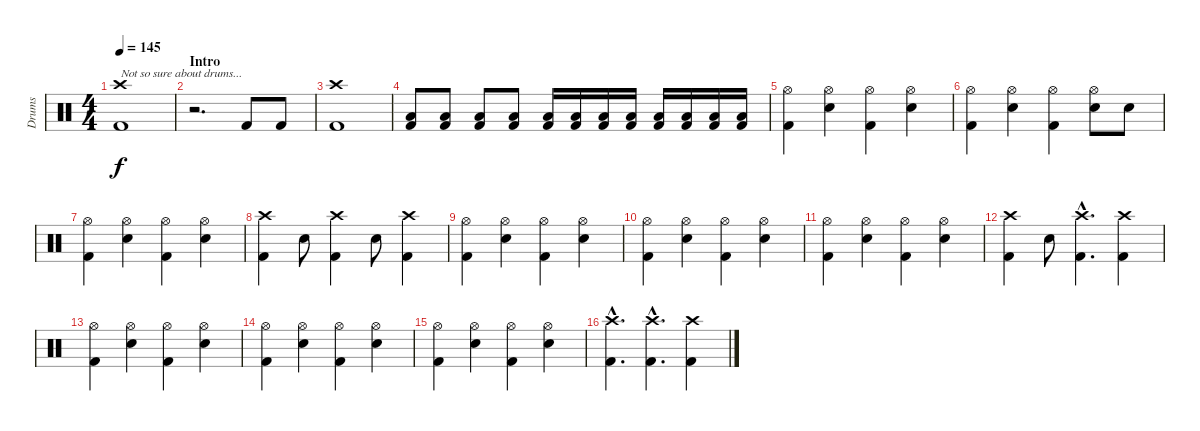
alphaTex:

\track ("Drums" "Drums") {instrument percussion}
\staff {score}
\articulation defaults
\ts (4 4)
\tempo 145
\clef neutral
\ks c
("Crash high (hit)" "Kick (hit) 2").1{txt "Not so sure about drums..." dy f} |
\section ("" "Intro")
r.2{d} "Kick (hit) 2".8 "Kick (hit) 2".8 |
("Crash high (hit)" "Kick (hit) 2").1 |
("Kick (hit) 2" "Low Tom (hit)").8 ("Kick (hit) 2" "Low Tom (hit)").8 ("Kick (hit) 2" "Low Tom (hit)").8 ("Kick (hit) 2" "Low Tom (hit)").8 ("Kick (hit) 2" "Low Tom (hit)").16 ("Kick (hit) 2" "Low Tom (hit)").16 ("Kick (hit) 2" "Low Tom (hit)").16 ("Kick (hit) 2" "Low Tom (hit)").16 ("Kick (hit) 2" "Low Tom (hit)").16 ("Kick (hit) 2" "Low Tom (hit)").16 ("Kick (hit) 2" "Low Tom (hit)").16 ("Kick (hit) 2" "Low Tom (hit)").16 |
("Hi-Hat (open)" "Kick (hit) 2").4 ("Hi-Hat (open)" "Electric Snare (hit)").4 ("Hi-Hat (open)" "Kick (hit) 2").4 ("Hi-Hat (open)" "Electric Snare (hit)").4 |
("Hi-Hat (open)" "Kick (hit) 2").4 ("Hi-Hat (open)" "Electric Snare (hit)").4 ("Hi-Hat (open)" "Kick (hit) 2").4 ("Hi-Hat (open)" "Electric Snare (hit)").8 "Electric Snare (hit)".8 |
("Hi-Hat (open)" "Kick (hit) 2").4 ("Hi-Hat (open)" "Electric Snare (hit)").4 ("Hi-Hat (open)" "Kick (hit) 2").4 ("Hi-Hat (open)" "Electric Snare (hit)").4 |
("Crash high (hit)" "Kick (hit) 2").4 "Electric Snare (hit)".8 ("Crash high (hit)" "Kick (hit) 2").4 "Electric Snare (hit)".8 ("Crash high (hit)" "Kick (hit) 2").4 |
("Hi-Hat (open)" "Kick (hit) 2").4 ("Hi-Hat (open)" "Electric Snare (hit)").4 ("Hi-Hat (open)" "Kick (hit) 2").4 ("Hi-Hat (open)" "Electric Snare (hit)").4 |
("Hi-Hat (open)" "Kick (hit) 2").4 ("Hi-Hat (open)" "Electric Snare (hit)").4 ("Hi-Hat (open)" "Kick (hit) 2").4 ("Hi-Hat (open)" "Electric Snare (hit)").4 |
("Hi-Hat (open)" "Kick (hit) 2").4 ("Hi-Hat (open)" "Electric Snare (hit)").4 ("Hi-Hat (open)" "Kick (hit) 2").4 ("Hi-Hat (open)" "Electric Snare (hit)").4 |
("Crash high (hit)" "Kick (hit) 2").4 "Electric Snare (hit)".8 ("Crash high (hit)"{hac} "Kick (hit) 2"{hac}).4{d} ("Crash high (hit)" "Kick (hit) 2").4 |
("Hi-Hat (open)" "Kick (hit) 2").4 ("Hi-Hat (open)" "Electric Snare (hit)").4 ("Hi-Hat (open)" "Kick (hit) 2").4 ("Hi-Hat (open)" "Electric Snare (hit)").4 |
("Hi-Hat (open)" "Kick (hit) 2").4 ("Hi-Hat (open)" "Electric Snare (hit)").4 ("Hi-Hat (open)" "Kick (hit) 2").4 ("Hi-Hat (open)" "Electric Snare (hit)").4 |
("Hi-Hat (open)" "Kick (hit) 2").4 ("Hi-Hat (open)" "Electric Snare (hit)").4 ("Hi-Hat (open)" "Kick (hit) 2").4 ("Hi-Hat (open)" "Electric Snare (hit)").4 |
("Crash high (hit)"{hac} "Kick (hit) 2"{hac}).4{d} ("Crash high (hit)"{hac} "Kick (hit) 2"{hac}).4{d} ("Crash high (hit)" "Kick (hit) 2").4
